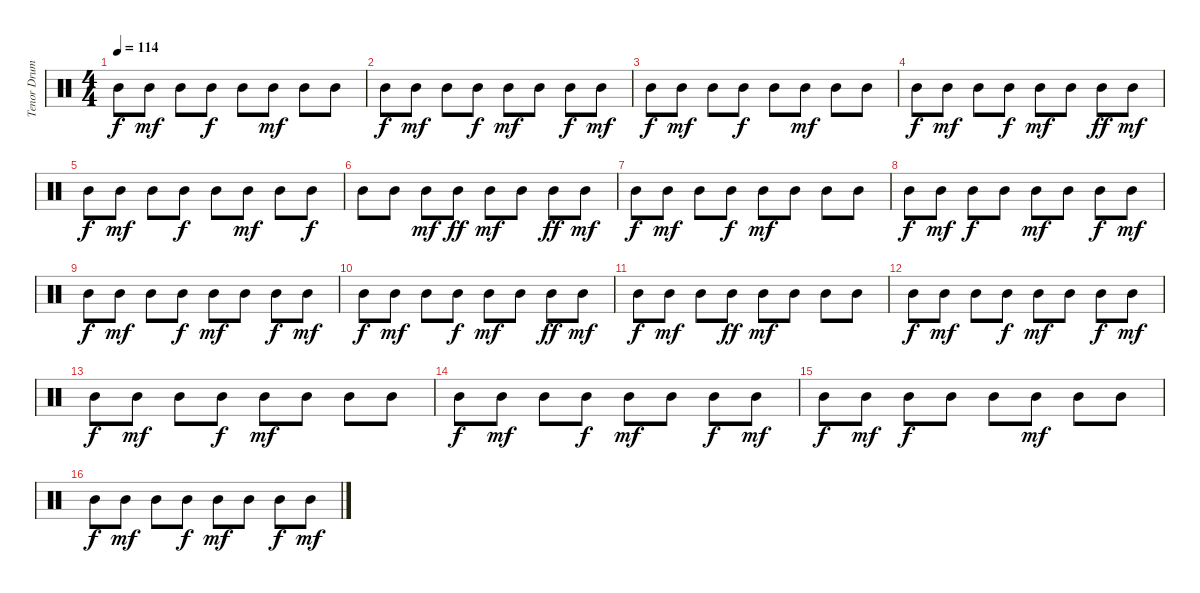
\track ("Tenor Drum" "Tenor Drum") {instrument percussion}
\staff {score}
\articulation defaults
\ts (4 4)
\tempo 114
\clef neutral
\ks c "Mid Tom (hit)".8{dy f} "Mid Tom (hit)".8{dy mf} "Mid Tom (hit)".8 "Mid Tom (hit)".8{dy f} "Mid Tom (hit)".8 "Mid Tom (hit)".8{dy mf} "Mid Tom (hit)".8 "Mid Tom (hit)".8
|
"Mid Tom (hit)".8{dy f} "Mid Tom (hit)".8{dy mf} "Mid Tom (hit)".8 "Mid Tom (hit)".8{dy f} "Mid Tom (hit)".8{dy mf} "Mid Tom (hit)".8 "Mid Tom (hit)".8{dy f} "Mid Tom (hit)".8{dy mf} |
"Mid Tom (hit)".8{dy f} "Mid Tom (hit)".8{dy mf} "Mid Tom (hit)".8 "Mid Tom (hit)".8{dy f} "Mid Tom (hit)".8 "Mid Tom (hit)".8{dy mf} "Mid Tom (hit)".8 "Mid Tom (hit)".8 |
"Mid Tom (hit)".8{dy f} "Mid Tom (hit)".8{dy mf} "Mid Tom (hit)".8 "Mid Tom (hit)".8{dy f} "Mid Tom (hit)".8{dy mf} "Mid Tom (hit)".8 "Mid Tom (hit)".8{dy ff} "Mid Tom (hit)".8{dy mf} |
"Mid Tom (hit)".8{dy f} "Mid Tom (hit)".8{dy mf} "Mid Tom (hit)".8 "Mid Tom (hit)".8{dy f} "Mid Tom (hit)".8 "Mid Tom (hit)".8{dy mf} "Mid Tom (hit)".8 "Mid Tom (hit)".8{dy f} |
"Mid Tom (hit)".8 "Mid Tom (hit)".8 "Mid Tom (hit)".8{dy mf} "Mid Tom (hit)".8{dy ff} "Mid Tom (hit)".8{dy mf} "Mid Tom (hit)".8 "Mid Tom (hit)".8{dy ff} "Mid Tom (hit)".8{dy mf} |
"Mid Tom (hit)".8{dy f} "Mid Tom (hit)".8{dy mf} "Mid Tom (hit)".8 "Mid Tom (hit)".8{dy f} "Mid Tom (hit)".8{dy mf} "Mid Tom (hit)".8 "Mid Tom (hit)".8 "Mid Tom (hit)".8 |
"Mid Tom (hit)".8{dy f} "Mid Tom (hit)".8{dy mf} "Mid Tom (hit)".8{dy f} "Mid Tom (hit)".8 "Mid Tom (hit)".8{dy mf} "Mid Tom (hit)".8 "Mid Tom (hit)".8{dy f} "Mid Tom (hit)".8{dy mf} |
"Mid Tom (hit)".8{dy f} "Mid Tom (hit)".8{dy mf} "Mid Tom (hit)".8 "Mid Tom (hit)".8{dy f} "Mid Tom (hit)".8{dy mf} "Mid Tom (hit)".8 "Mid Tom (hit)".8{dy f} "Mid Tom (hit)".8{dy mf} |
"Mid Tom (hit)".8{dy f} "Mid Tom (hit)".8{dy mf} "Mid Tom (hit)".8 "Mid Tom (hit)".8{dy f} "Mid Tom (hit)".8{dy mf} "Mid Tom (hit)".8 "Mid Tom (hit)".8{dy ff} "Mid Tom (hit)".8{dy mf} |
"Mid Tom (hit)".8{dy f} "Mid Tom (hit)".8{dy mf} "Mid Tom (hit)".8 "Mid Tom (hit)".8{dy ff} "Mid Tom (hit)".8{dy mf} "Mid Tom (hit)".8 "Mid Tom (hit)".8 "Mid Tom (hit)".8 |
"Mid Tom (hit)".8{dy f} "Mid Tom (hit)".8{dy mf} "Mid Tom (hit)".8 "Mid Tom (hit)".8{dy f} "Mid Tom (hit)".8{dy mf} "Mid Tom (hit)".8 "Mid Tom (hit)".8{dy f} "Mid Tom (hit)".8{dy mf} |
"Mid Tom (hit)".8{dy f} "Mid Tom (hit)".8{dy mf} "Mid Tom (hit)".8 "Mid Tom (hit)".8{dy f} "Mid Tom (hit)".8{dy mf} "Mid Tom (hit)".8 "Mid Tom (hit)".8 "Mid Tom (hit)".8 |
"Mid Tom (hit)".8{dy f} "Mid Tom (hit)".8{dy mf} "Mid Tom (hit)".8 "Mid Tom (hit)".8{dy f} "Mid Tom (hit)".8{dy mf} "Mid Tom (hit)".8 "Mid Tom (hit)".8{dy f} "Mid Tom (hit)".8{dy mf} |
"Mid Tom (hit)".8{dy f} "Mid Tom (hit)".8{dy mf} "Mid Tom (hit)".8{dy f} "Mid Tom (hit)".8 "Mid Tom (hit)".8 "Mid Tom (hit)".8{dy mf} "Mid Tom (hit)".8 "Mid Tom (hit)".8 |
"Mid Tom (hit)".8{dy f} "Mid Tom (hit)".8{dy mf} "Mid Tom (hit)".8 "Mid Tom (hit)".8{dy f} "Mid Tom (hit)".8{dy mf} "Mid Tom (hit)".8 "Mid Tom (hit)".8{dy f} "Mid Tom (hit)".8{dy mf}
